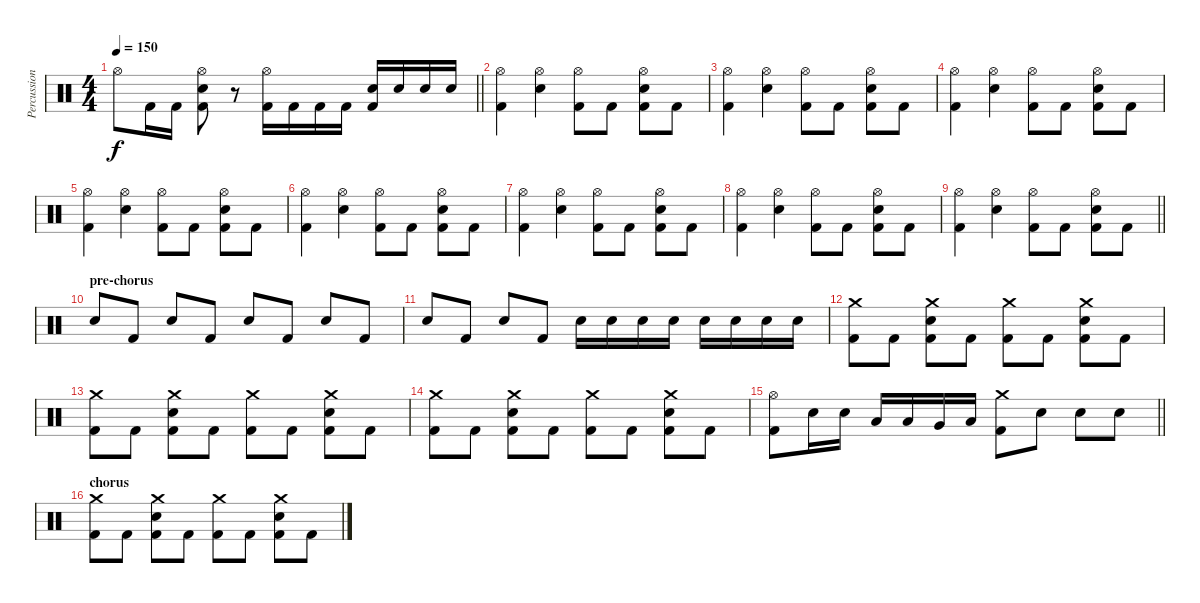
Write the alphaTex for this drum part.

\track ("Percussion" "Percussion") {instrument percussion}
\staff {score}
\articulation defaults
\ts (4 4)
\tempo 150
\clef neutral
\barLineRight lightlight
\ks c "Hi-Hat (open)".8{dy f} "Kick (hit) 2".16 "Kick (hit) 2".16
("Hi-Hat (open)" "Snare (hit) 2" "Kick (hit) 2").8 r.8 ("Hi-Hat (open)" "Kick (hit) 2").16 "Kick (hit) 2".16 "Kick (hit) 2".16 "Kick (hit) 2".16 ("Snare (hit) 2" "Kick (hit) 2").16 "Snare (hit) 2".16 "Snare (hit) 2".16 "Snare (hit) 2".16 |
\section ("" "")
("Hi-Hat (open)" "Kick (hit) 2").4 ("Hi-Hat (open)" "Snare (hit) 2").4 ("Hi-Hat (open)" "Kick (hit) 2").8 "Kick (hit) 2".8 ("Hi-Hat (open)" "Snare (hit) 2" "Kick (hit) 2").8 "Kick (hit) 2".8 |
("Hi-Hat (open)" "Kick (hit) 2").4 ("Hi-Hat (open)" "Snare (hit) 2").4 ("Hi-Hat (open)" "Kick (hit) 2").8 "Kick (hit) 2".8 ("Hi-Hat (open)" "Snare (hit) 2" "Kick (hit) 2").8 "Kick (hit) 2".8 |
("Hi-Hat (open)" "Kick (hit) 2").4 ("Hi-Hat (open)" "Snare (hit) 2").4 ("Hi-Hat (open)" "Kick (hit) 2").8 "Kick (hit) 2".8 ("Hi-Hat (open)" "Snare (hit) 2" "Kick (hit) 2").8 "Kick (hit) 2".8 |
("Hi-Hat (open)" "Kick (hit) 2").4 ("Hi-Hat (open)" "Snare (hit) 2").4 ("Hi-Hat (open)" "Kick (hit) 2").8 "Kick (hit) 2".8 ("Hi-Hat (open)" "Snare (hit) 2" "Kick (hit) 2").8 "Kick (hit) 2".8 |
("Hi-Hat (open)" "Kick (hit) 2").4 ("Hi-Hat (open)" "Snare (hit) 2").4 ("Hi-Hat (open)" "Kick (hit) 2").8 "Kick (hit) 2".8 ("Hi-Hat (open)" "Snare (hit) 2" "Kick (hit) 2").8 "Kick (hit) 2".8 |
("Hi-Hat (open)" "Kick (hit) 2").4 ("Hi-Hat (open)" "Snare (hit) 2").4 ("Hi-Hat (open)" "Kick (hit) 2").8 "Kick (hit) 2".8 ("Hi-Hat (open)" "Snare (hit) 2" "Kick (hit) 2").8 "Kick (hit) 2".8 |
("Hi-Hat (open)" "Kick (hit) 2").4 ("Hi-Hat (open)" "Snare (hit) 2").4 ("Hi-Hat (open)" "Kick (hit) 2").8 "Kick (hit) 2".8 ("Hi-Hat (open)" "Snare (hit) 2" "Kick (hit) 2").8 "Kick (hit) 2".8 |
\barLineRight lightlight
("Hi-Hat (open)" "Kick (hit) 2").4 ("Hi-Hat (open)" "Snare (hit) 2").4 ("Hi-Hat (open)" "Kick (hit) 2").8 "Kick (hit) 2".8 ("Hi-Hat (open)" "Snare (hit) 2" "Kick (hit) 2").8 "Kick (hit) 2".8 |
\section ("" "pre-chorus")
"Snare (hit) 2".8 "Kick (hit) 2".8 "Snare (hit) 2".8 "Kick (hit) 2".8 "Snare (hit) 2".8 "Kick (hit) 2".8 "Snare (hit) 2".8 "Kick (hit) 2".8 |
"Snare (hit) 2".8 "Kick (hit) 2".8 "Snare (hit) 2".8 "Kick (hit) 2".8 "Snare (hit) 2".16 "Snare (hit) 2".16 "Snare (hit) 2".16 "Snare (hit) 2".16 "Snare (hit) 2".16 "Snare (hit) 2".16 "Snare (hit) 2".16 "Snare (hit) 2".16 |
("Crash medium (hit)" "Kick (hit) 2").8 "Kick (hit) 2".8 ("Crash medium (hit)" "Snare (hit) 2" "Kick (hit) 2").8 "Kick (hit) 2".8 ("Crash medium (hit)" "Kick (hit) 2").8 "Kick (hit) 2".8 ("Crash medium (hit)" "Snare (hit) 2" "Kick (hit) 2").8 "Kick (hit) 2".8 |
("Crash medium (hit)" "Kick (hit) 2").8 "Kick (hit) 2".8 ("Crash medium (hit)" "Snare (hit) 2" "Kick (hit) 2").8 "Kick (hit) 2".8 ("Crash medium (hit)" "Kick (hit) 2").8 "Kick (hit) 2".8 ("Crash medium (hit)" "Snare (hit) 2" "Kick (hit) 2").8 "Kick (hit) 2".8 |
("Crash medium (hit)" "Kick (hit) 2").8 "Kick (hit) 2".8 ("Crash medium (hit)" "Snare (hit) 2" "Kick (hit) 2").8 "Kick (hit) 2".8 ("Crash medium (hit)" "Kick (hit) 2").8 "Kick (hit) 2".8 ("Crash medium (hit)" "Snare (hit) 2" "Kick (hit) 2").8 "Kick (hit) 2".8 |
\barLineRight lightlight
("Hi-Hat (open)" "Kick (hit) 2").8 "Snare (hit) 2".16 "Snare (hit) 2".16 "Low Tom (hit)".16 "Low Tom (hit)".16 "Very Low Tom (hit)".16 "Low Floor Tom (hit)".16 ("Crash medium (hit)" "Kick (hit) 2").8 "Snare (hit) 2".8 "Snare (hit) 2".8 "Snare (hit) 2".8 |
\section ("" "chorus")
("Crash medium (hit)" "Kick (hit) 2").8 "Kick (hit) 2".8 ("Crash medium (hit)" "Snare (hit) 2" "Kick (hit) 2").8 "Kick (hit) 2".8 ("Crash medium (hit)" "Kick (hit) 2").8 "Kick (hit) 2".8 ("Crash medium (hit)" "Snare (hit) 2" "Kick (hit) 2").8 "Kick (hit) 2".8
